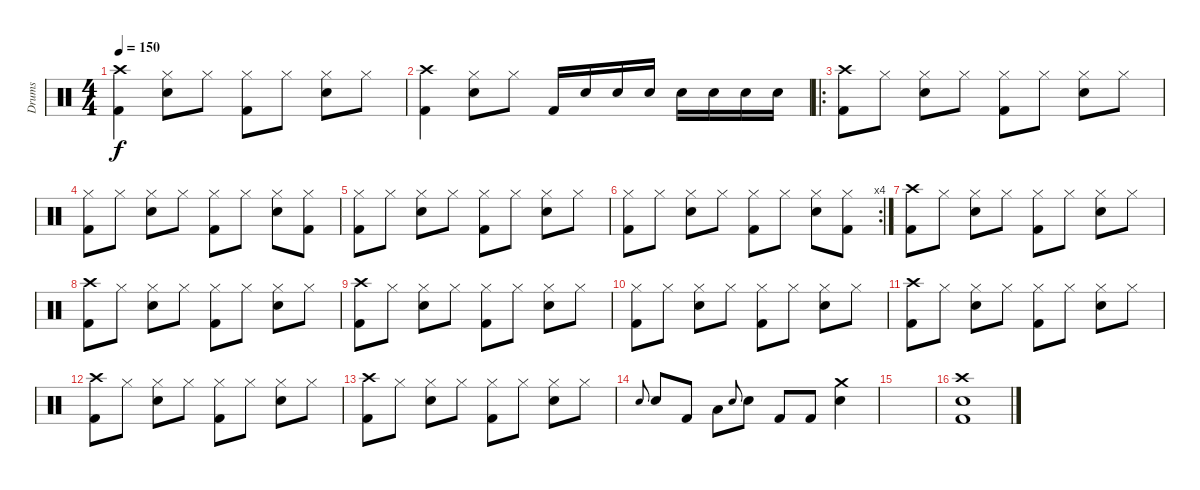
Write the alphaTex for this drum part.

\track ("Drums" "Drums") {instrument percussion}
\staff {score}
\articulation defaults
\ts (4 4)
\tempo 150
\clef neutral
\ks c
("Crash high (hit)" "Kick (hit) 2").4{dy f} ("Hi-Hat (closed)" "Snare (hit) 2").8 "Hi-Hat (closed)".8 ("Hi-Hat (closed)" "Kick (hit) 2").8 "Hi-Hat (closed)".8 ("Hi-Hat (closed)" "Snare (hit) 2").8 "Hi-Hat (closed)".8 |
("Crash high (hit)" "Kick (hit) 2").4 ("Hi-Hat (closed)" "Snare (hit) 2").8 "Hi-Hat (closed)".8 "Kick (hit) 2".16 "Snare (hit) 2".16 "Snare (hit) 2".16 "Snare (hit) 2".16 "Snare (hit) 2".16 "Snare (hit) 2".16 "Snare (hit) 2".16 "Snare (hit) 2".16 |
\ro
("Crash high (hit)" "Kick (hit) 2").8 "Hi-Hat (closed)".8 ("Hi-Hat (closed)" "Snare (hit) 2").8 "Hi-Hat (closed)".8 ("Hi-Hat (closed)" "Kick (hit) 2").8 "Hi-Hat (closed)".8 ("Hi-Hat (closed)" "Snare (hit) 2").8 "Hi-Hat (closed)".8 |
("Hi-Hat (closed)" "Kick (hit) 2").8 "Hi-Hat (closed)".8 ("Hi-Hat (closed)" "Snare (hit) 2").8 "Hi-Hat (closed)".8 ("Hi-Hat (closed)" "Kick (hit) 2").8 "Hi-Hat (closed)".8 ("Hi-Hat (closed)" "Snare (hit) 2").8 ("Hi-Hat (closed)" "Kick (hit) 2").8 |
("Hi-Hat (closed)" "Kick (hit) 2").8 "Hi-Hat (closed)".8 ("Hi-Hat (closed)" "Snare (hit) 2").8 "Hi-Hat (closed)".8 ("Hi-Hat (closed)" "Kick (hit) 2").8 "Hi-Hat (closed)".8 ("Hi-Hat (closed)" "Snare (hit) 2").8 "Hi-Hat (closed)".8 |
\rc 4
("Hi-Hat (closed)" "Kick (hit) 2").8 "Hi-Hat (closed)".8 ("Hi-Hat (closed)" "Snare (hit) 2").8 "Hi-Hat (closed)".8 ("Hi-Hat (closed)" "Kick (hit) 2").8 "Hi-Hat (closed)".8 ("Hi-Hat (closed)" "Snare (hit) 2").8 ("Hi-Hat (closed)" "Kick (hit) 2").8 |
("Crash high (hit)" "Kick (hit) 2").8 "Hi-Hat (closed)".8 ("Hi-Hat (closed)" "Snare (hit) 2").8 "Hi-Hat (closed)".8 ("Hi-Hat (closed)" "Kick (hit) 2").8 "Hi-Hat (closed)".8 ("Hi-Hat (closed)" "Snare (hit) 2").8 "Hi-Hat (closed)".8 |
("Crash high (hit)" "Kick (hit) 2").8 "Hi-Hat (closed)".8 ("Hi-Hat (closed)" "Snare (hit) 2").8 "Hi-Hat (closed)".8 ("Hi-Hat (closed)" "Kick (hit) 2").8 "Hi-Hat (closed)".8 ("Hi-Hat (closed)" "Snare (hit) 2").8 "Hi-Hat (closed)".8 |
("Crash high (hit)" "Kick (hit) 2").8 "Hi-Hat (closed)".8 ("Hi-Hat (closed)" "Snare (hit) 2").8 "Hi-Hat (closed)".8 ("Hi-Hat (closed)" "Kick (hit) 2").8 "Hi-Hat (closed)".8 ("Hi-Hat (closed)" "Snare (hit) 2").8 "Hi-Hat (closed)".8 |
("Hi-Hat (closed)" "Kick (hit) 2").8 "Hi-Hat (closed)".8 ("Hi-Hat (closed)" "Snare (hit) 2").8 "Hi-Hat (closed)".8 ("Hi-Hat (closed)" "Kick (hit) 2").8 "Hi-Hat (closed)".8 ("Hi-Hat (closed)" "Snare (hit) 2").8 "Hi-Hat (closed)".8 |
("Crash high (hit)" "Kick (hit) 2").8 "Hi-Hat (closed)".8 ("Hi-Hat (closed)" "Snare (hit) 2").8 "Hi-Hat (closed)".8 ("Hi-Hat (closed)" "Kick (hit) 2").8 "Hi-Hat (closed)".8 ("Hi-Hat (closed)" "Snare (hit) 2").8 "Hi-Hat (closed)".8 |
("Crash high (hit)" "Kick (hit) 2").8 "Hi-Hat (closed)".8 ("Hi-Hat (closed)" "Snare (hit) 2").8 "Hi-Hat (closed)".8 ("Hi-Hat (closed)" "Kick (hit) 2").8 "Hi-Hat (closed)".8 ("Hi-Hat (closed)" "Snare (hit) 2").8 "Hi-Hat (closed)".8 |
("Crash high (hit)" "Kick (hit) 2").8 "Hi-Hat (closed)".8 ("Hi-Hat (closed)" "Snare (hit) 2").8 "Hi-Hat (closed)".8 ("Hi-Hat (closed)" "Kick (hit) 2").8 "Hi-Hat (closed)".8 ("Hi-Hat (closed)" "Snare (hit) 2").8 "Hi-Hat (closed)".8 |
"Snare (hit) 2".8{gr onbeat} "Snare (hit) 2".8 "Kick (hit) 2".8 "Low Tom (hit)".8 "Electric Snare (hit)".8{gr onbeat} "Snare (hit) 2".8 "Kick (hit) 2".8 "Kick (hit) 2".8 ("Crash medium (hit)" "Snare (hit) 2").4 |
|
("Crash high (hit)" "Snare (hit) 2" "Kick (hit) 2").1
